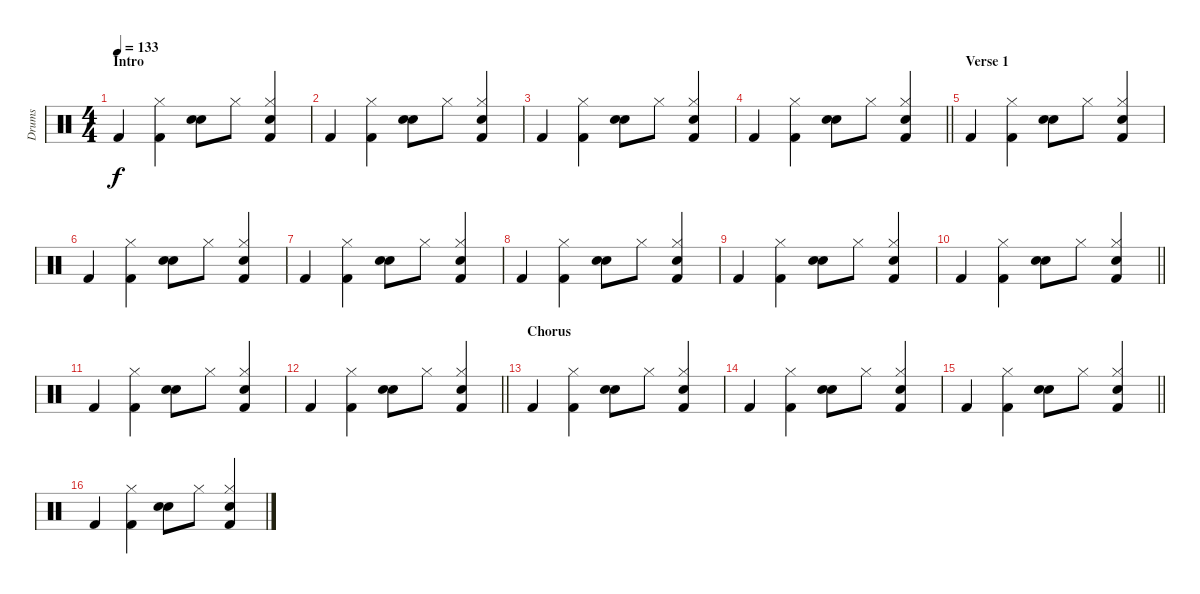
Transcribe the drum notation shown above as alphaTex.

\track ("Drums" "Drums") {instrument percussion}
\staff {score}
\articulation defaults
\ts (4 4)
\section ("" "Intro")
\tempo 133
\clef neutral
\ks c "Kick (hit) 2".4{dy f}
("Hi-Hat (closed)" "Kick (hit) 2").4 ("Snare (hit) 2" "Electric Snare (hit)").8 "Hi-Hat (closed)".8 ("Hi-Hat (closed)" "Snare (hit) 2" "Kick (hit) 2").4 |
"Kick (hit) 2".4 ("Hi-Hat (closed)" "Kick (hit) 2").4 ("Snare (hit) 2" "Electric Snare (hit)").8 "Hi-Hat (closed)".8 ("Hi-Hat (closed)" "Snare (hit) 2" "Kick (hit) 2").4 |
"Kick (hit) 2".4 ("Hi-Hat (closed)" "Kick (hit) 2").4 ("Snare (hit) 2" "Electric Snare (hit)").8 "Hi-Hat (closed)".8 ("Hi-Hat (closed)" "Snare (hit) 2" "Kick (hit) 2").4 |
\barLineRight lightlight "Kick (hit) 2".4
("Hi-Hat (closed)" "Kick (hit) 2").4 ("Snare (hit) 2" "Electric Snare (hit)").8 "Hi-Hat (closed)".8 ("Hi-Hat (closed)" "Snare (hit) 2" "Kick (hit) 2").4 |
\section ("" "Verse 1")
"Kick (hit) 2".4 ("Hi-Hat (closed)" "Kick (hit) 2").4 ("Snare (hit) 2" "Electric Snare (hit)").8 "Hi-Hat (closed)".8 ("Hi-Hat (closed)" "Snare (hit) 2" "Kick (hit) 2").4 |
"Kick (hit) 2".4 ("Hi-Hat (closed)" "Kick (hit) 2").4 ("Snare (hit) 2" "Electric Snare (hit)").8 "Hi-Hat (closed)".8 ("Hi-Hat (closed)" "Snare (hit) 2" "Kick (hit) 2").4 |
"Kick (hit) 2".4 ("Hi-Hat (closed)" "Kick (hit) 2").4 ("Snare (hit) 2" "Electric Snare (hit)").8 "Hi-Hat (closed)".8 ("Hi-Hat (closed)" "Snare (hit) 2" "Kick (hit) 2").4 |
"Kick (hit) 2".4 ("Hi-Hat (closed)" "Kick (hit) 2").4 ("Snare (hit) 2" "Electric Snare (hit)").8 "Hi-Hat (closed)".8 ("Hi-Hat (closed)" "Snare (hit) 2" "Kick (hit) 2").4 |
"Kick (hit) 2".4 ("Hi-Hat (closed)" "Kick (hit) 2").4 ("Snare (hit) 2" "Electric Snare (hit)").8 "Hi-Hat (closed)".8 ("Hi-Hat (closed)" "Snare (hit) 2" "Kick (hit) 2").4 |
\barLineRight lightlight "Kick (hit) 2".4
("Hi-Hat (closed)" "Kick (hit) 2").4 ("Snare (hit) 2" "Electric Snare (hit)").8 "Hi-Hat (closed)".8 ("Hi-Hat (closed)" "Snare (hit) 2" "Kick (hit) 2").4 |
"Kick (hit) 2".4 ("Hi-Hat (closed)" "Kick (hit) 2").4 ("Snare (hit) 2" "Electric Snare (hit)").8 "Hi-Hat (closed)".8 ("Hi-Hat (closed)" "Snare (hit) 2" "Kick (hit) 2").4 |
\barLineRight lightlight "Kick (hit) 2".4
("Hi-Hat (closed)" "Kick (hit) 2").4 ("Snare (hit) 2" "Electric Snare (hit)").8 "Hi-Hat (closed)".8 ("Hi-Hat (closed)" "Snare (hit) 2" "Kick (hit) 2").4 |
\section ("" "Chorus")
"Kick (hit) 2".4 ("Hi-Hat (closed)" "Kick (hit) 2").4 ("Snare (hit) 2" "Electric Snare (hit)").8 "Hi-Hat (closed)".8 ("Hi-Hat (closed)" "Snare (hit) 2" "Kick (hit) 2").4 |
"Kick (hit) 2".4 ("Hi-Hat (closed)" "Kick (hit) 2").4 ("Snare (hit) 2" "Electric Snare (hit)").8 "Hi-Hat (closed)".8 ("Hi-Hat (closed)" "Snare (hit) 2" "Kick (hit) 2").4 |
\barLineRight lightlight "Kick (hit) 2".4
("Hi-Hat (closed)" "Kick (hit) 2").4 ("Snare (hit) 2" "Electric Snare (hit)").8 "Hi-Hat (closed)".8 ("Hi-Hat (closed)" "Snare (hit) 2" "Kick (hit) 2").4 |
"Kick (hit) 2".4 ("Hi-Hat (closed)" "Kick (hit) 2").4 ("Snare (hit) 2" "Electric Snare (hit)").8 "Hi-Hat (closed)".8 ("Hi-Hat (closed)" "Snare (hit) 2" "Kick (hit) 2").4
